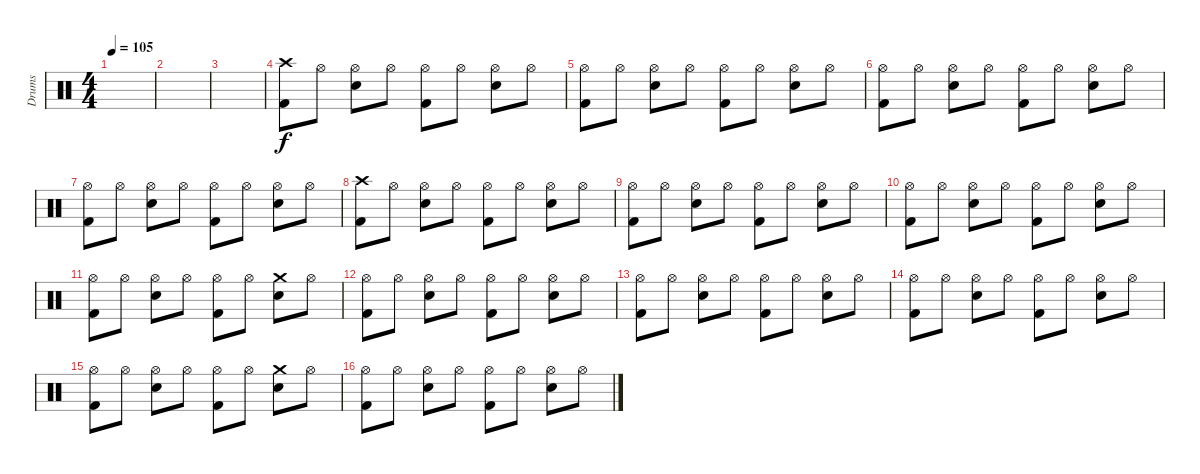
\track ("Drums" "Drums") {instrument percussion}
\staff {score}
\articulation defaults
\ts (4 4)
\tempo 105
\clef neutral
\ks c
|
|
|
("Crash high (hit)" "Kick (hit) 2").8 "Hi-Hat (open)".8 ("Hi-Hat (open)" "Snare (hit) 2").8 "Hi-Hat (open)".8 ("Hi-Hat (open)" "Kick (hit) 2").8 "Hi-Hat (open)".8 ("Hi-Hat (open)" "Snare (hit) 2").8 "Hi-Hat (open)".8 |
("Hi-Hat (open)" "Kick (hit) 2").8 "Hi-Hat (open)".8 ("Hi-Hat (open)" "Snare (hit) 2").8 "Hi-Hat (open)".8 ("Hi-Hat (open)" "Kick (hit) 2").8 "Hi-Hat (open)".8 ("Hi-Hat (open)" "Snare (hit) 2").8 "Hi-Hat (open)".8 |
("Hi-Hat (open)" "Kick (hit) 2").8 "Hi-Hat (open)".8 ("Hi-Hat (open)" "Snare (hit) 2").8 "Hi-Hat (open)".8 ("Hi-Hat (open)" "Kick (hit) 2").8 "Hi-Hat (open)".8 ("Hi-Hat (open)" "Snare (hit) 2").8 "Hi-Hat (open)".8 |
("Hi-Hat (open)" "Kick (hit) 2").8 "Hi-Hat (open)".8 ("Hi-Hat (open)" "Snare (hit) 2").8 "Hi-Hat (open)".8 ("Hi-Hat (open)" "Kick (hit) 2").8 "Hi-Hat (open)".8 ("Hi-Hat (open)" "Snare (hit) 2").8 "Hi-Hat (open)".8 |
("Crash high (hit)" "Kick (hit) 2").8 "Hi-Hat (open)".8 ("Hi-Hat (open)" "Snare (hit) 2").8 "Hi-Hat (open)".8 ("Hi-Hat (open)" "Kick (hit) 2").8 "Hi-Hat (open)".8 ("Hi-Hat (open)" "Snare (hit) 2").8 "Hi-Hat (open)".8 |
("Hi-Hat (open)" "Kick (hit) 2").8 "Hi-Hat (open)".8 ("Hi-Hat (open)" "Snare (hit) 2").8 "Hi-Hat (open)".8 ("Hi-Hat (open)" "Kick (hit) 2").8 "Hi-Hat (open)".8 ("Hi-Hat (open)" "Snare (hit) 2").8 "Hi-Hat (open)".8 |
("Hi-Hat (open)" "Kick (hit) 2").8 "Hi-Hat (open)".8 ("Hi-Hat (open)" "Snare (hit) 2").8 "Hi-Hat (open)".8 ("Hi-Hat (open)" "Kick (hit) 2").8 "Hi-Hat (open)".8 ("Hi-Hat (open)" "Snare (hit) 2").8 "Hi-Hat (open)".8 |
("Hi-Hat (open)" "Kick (hit) 2").8 "Hi-Hat (open)".8 ("Hi-Hat (open)" "Snare (hit) 2").8 "Hi-Hat (open)".8 ("Hi-Hat (open)" "Kick (hit) 2").8 "Hi-Hat (open)".8 ("Crash medium (hit)" "Snare (hit) 2").8 "Hi-Hat (open)".8 |
("Hi-Hat (open)" "Kick (hit) 2").8 "Hi-Hat (open)".8 ("Hi-Hat (open)" "Snare (hit) 2").8 "Hi-Hat (open)".8 ("Hi-Hat (open)" "Kick (hit) 2").8 "Hi-Hat (open)".8 ("Hi-Hat (open)" "Snare (hit) 2").8 "Hi-Hat (open)".8 |
("Hi-Hat (open)" "Kick (hit) 2").8 "Hi-Hat (open)".8 ("Hi-Hat (open)" "Snare (hit) 2").8 "Hi-Hat (open)".8 ("Hi-Hat (open)" "Kick (hit) 2").8 "Hi-Hat (open)".8 ("Hi-Hat (open)" "Snare (hit) 2").8 "Hi-Hat (open)".8 |
("Hi-Hat (open)" "Kick (hit) 2").8 "Hi-Hat (open)".8 ("Hi-Hat (open)" "Snare (hit) 2").8 "Hi-Hat (open)".8 ("Hi-Hat (open)" "Kick (hit) 2").8 "Hi-Hat (open)".8 ("Hi-Hat (open)" "Snare (hit) 2").8 "Hi-Hat (open)".8 |
("Hi-Hat (open)" "Kick (hit) 2").8 "Hi-Hat (open)".8 ("Hi-Hat (open)" "Snare (hit) 2").8 "Hi-Hat (open)".8 ("Hi-Hat (open)" "Kick (hit) 2").8 "Hi-Hat (open)".8 ("Crash medium (hit)" "Snare (hit) 2").8 "Hi-Hat (open)".8 |
("Hi-Hat (open)" "Kick (hit) 2").8 "Hi-Hat (open)".8 ("Hi-Hat (open)" "Snare (hit) 2").8 "Hi-Hat (open)".8 ("Hi-Hat (open)" "Kick (hit) 2").8 "Hi-Hat (open)".8 ("Hi-Hat (open)" "Snare (hit) 2").8 "Hi-Hat (open)".8
